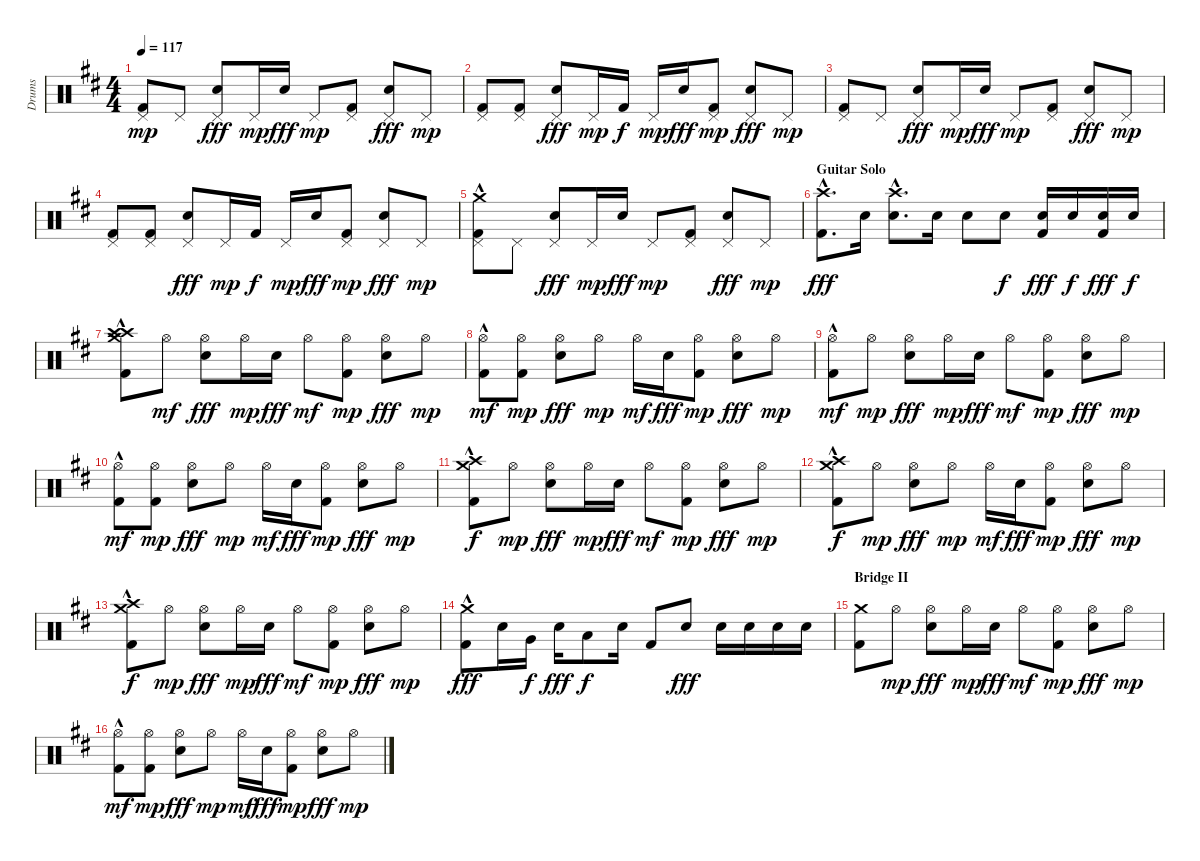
\track ("Drums" "Drums") {instrument percussion}
\staff {score}
\articulation defaults
\ts (4 4)
\tempo 117
\clef neutral
\ks d
("Pedal Hi-Hat (hit)" "Kick (hit) 2").8{dy mp} "Pedal Hi-Hat (hit)".8 ("Pedal Hi-Hat (hit)" "Electric Snare (hit)").8{dy fff} "Pedal Hi-Hat (hit)".16{dy mp} "Electric Snare (hit)".16{dy fff} "Pedal Hi-Hat (hit)".8{dy mp} ("Pedal Hi-Hat (hit)" "Kick (hit) 2").8 ("Pedal Hi-Hat (hit)" "Electric Snare (hit)").8{dy fff} "Pedal Hi-Hat (hit)".8{dy mp} |
("Pedal Hi-Hat (hit)" "Kick (hit) 2").8 ("Pedal Hi-Hat (hit)" "Kick (hit) 2").8 ("Pedal Hi-Hat (hit)" "Electric Snare (hit)").8{dy fff} "Pedal Hi-Hat (hit)".16{dy mp} "Kick (hit) 2".16{dy f} "Pedal Hi-Hat (hit)".16{dy mp} "Electric Snare (hit)".16{dy fff} ("Pedal Hi-Hat (hit)" "Kick (hit) 2").8{dy mp} ("Pedal Hi-Hat (hit)" "Electric Snare (hit)").8{dy fff} "Pedal Hi-Hat (hit)".8{dy mp} |
("Pedal Hi-Hat (hit)" "Kick (hit) 2").8 "Pedal Hi-Hat (hit)".8 ("Pedal Hi-Hat (hit)" "Electric Snare (hit)").8{dy fff} "Pedal Hi-Hat (hit)".16{dy mp} "Electric Snare (hit)".16{dy fff} "Pedal Hi-Hat (hit)".8{dy mp} ("Pedal Hi-Hat (hit)" "Kick (hit) 2").8 ("Pedal Hi-Hat (hit)" "Electric Snare (hit)").8{dy fff} "Pedal Hi-Hat (hit)".8{dy mp} |
("Pedal Hi-Hat (hit)" "Kick (hit) 2").8 ("Pedal Hi-Hat (hit)" "Kick (hit) 2").8 ("Pedal Hi-Hat (hit)" "Electric Snare (hit)").8{dy fff} "Pedal Hi-Hat (hit)".16{dy mp} "Kick (hit) 2".16{dy f} "Pedal Hi-Hat (hit)".16{dy mp} "Electric Snare (hit)".16{dy fff} ("Pedal Hi-Hat (hit)" "Kick (hit) 2").8{dy mp} ("Pedal Hi-Hat (hit)" "Electric Snare (hit)").8{dy fff} "Pedal Hi-Hat (hit)".8{dy mp} |
("Pedal Hi-Hat (hit)"{hac} "Crash medium (hit)" "Kick (hit) 2"{hac}).8 "Pedal Hi-Hat (hit)".8 ("Pedal Hi-Hat (hit)" "Electric Snare (hit)").8{dy fff} "Pedal Hi-Hat (hit)".16{dy mp} "Electric Snare (hit)".16{dy fff} "Pedal Hi-Hat (hit)".8{dy mp} ("Pedal Hi-Hat (hit)" "Kick (hit) 2").8 ("Pedal Hi-Hat (hit)" "Electric Snare (hit)").8{dy fff} "Pedal Hi-Hat (hit)".8{dy mp} |
\section ("" "Guitar Solo")
("Crash high (hit)"{hac} "Kick (hit) 2"{hac}).8{d dy fff} "Electric Snare (hit)".16 ("Crash high (hit)"{hac} "Electric Snare (hit)").8{d} "Electric Snare (hit)".16 "Electric Snare (hit)".8 "Electric Snare (hit)".8{dy f} ("Kick (hit) 2" "Electric Snare (hit)").16{dy fff} "Electric Snare (hit)".16{dy f} ("Kick (hit) 2" "Electric Snare (hit)").16{dy fff} "Electric Snare (hit)".16{dy f} |
("Crash medium (hit)" "Crash high (hit)" "Crash high (hit)" "Kick (hit) 2"{hac}).8 "Hi-Hat (open)".8{dy mf} ("Hi-Hat (open)" "Electric Snare (hit)").8{dy fff} "Hi-Hat (open)".16{dy mp} "Electric Snare (hit)".16{dy fff} "Hi-Hat (open)".8{dy mf} ("Hi-Hat (open)" "Kick (hit) 2").8{dy mp} ("Hi-Hat (open)" "Electric Snare (hit)").8{dy fff} "Hi-Hat (open)".8{dy mp} |
("Hi-Hat (open)" "Kick (hit) 2"{hac}).8{dy mf} ("Hi-Hat (open)" "Kick (hit) 2").8{dy mp} ("Hi-Hat (open)" "Electric Snare (hit)").8{dy fff} "Hi-Hat (open)".8{dy mp} "Hi-Hat (open)".16{dy mf} "Electric Snare (hit)".16{dy fff} ("Hi-Hat (open)" "Kick (hit) 2").8{dy mp} ("Hi-Hat (open)" "Electric Snare (hit)").8{dy fff} "Hi-Hat (open)".8{dy mp} |
("Hi-Hat (open)" "Kick (hit) 2"{hac}).8{dy mf} "Hi-Hat (open)".8{dy mp} ("Hi-Hat (open)" "Electric Snare (hit)").8{dy fff} "Hi-Hat (open)".16{dy mp} "Electric Snare (hit)".16{dy fff} "Hi-Hat (open)".8{dy mf} ("Hi-Hat (open)" "Kick (hit) 2").8{dy mp} ("Hi-Hat (open)" "Electric Snare (hit)").8{dy fff} "Hi-Hat (open)".8{dy mp} |
("Hi-Hat (open)" "Kick (hit) 2"{hac}).8{dy mf} ("Hi-Hat (open)" "Kick (hit) 2").8{dy mp} ("Hi-Hat (open)" "Electric Snare (hit)").8{dy fff} "Hi-Hat (open)".8{dy mp} "Hi-Hat (open)".16{dy mf} "Electric Snare (hit)".16{dy fff} ("Hi-Hat (open)" "Kick (hit) 2").8{dy mp} ("Hi-Hat (open)" "Electric Snare (hit)").8{dy fff} "Hi-Hat (open)".8{dy mp} |
("Crash medium (hit)" "Crash high (hit)" "Kick (hit) 2"{hac}).8{dy f} "Hi-Hat (open)".8{dy mp} ("Hi-Hat (open)" "Electric Snare (hit)").8{dy fff} "Hi-Hat (open)".16{dy mp} "Electric Snare (hit)".16{dy fff} "Hi-Hat (open)".8{dy mf} ("Hi-Hat (open)" "Kick (hit) 2").8{dy mp} ("Hi-Hat (open)" "Electric Snare (hit)").8{dy fff} "Hi-Hat (open)".8{dy mp} |
("Kick (hit) 2" "Crash high (hit)" "Crash medium (hit)"{hac}).8{dy f} "Hi-Hat (open)".8{dy mp} ("Hi-Hat (open)" "Electric Snare (hit)").8{dy fff} "Hi-Hat (open)".8{dy mp} "Hi-Hat (open)".16{dy mf} "Electric Snare (hit)".16{dy fff} ("Hi-Hat (open)" "Kick (hit) 2").8{dy mp} ("Hi-Hat (open)" "Electric Snare (hit)").8{dy fff} "Hi-Hat (open)".8{dy mp} |
("Crash medium (hit)" "Crash high (hit)" "Kick (hit) 2"{hac}).8{dy f} "Hi-Hat (open)".8{dy mp} ("Hi-Hat (open)" "Electric Snare (hit)").8{dy fff} "Hi-Hat (open)".16{dy mp} "Electric Snare (hit)".16{dy fff} "Hi-Hat (open)".8{dy mf} ("Hi-Hat (open)" "Kick (hit) 2").8{dy mp} ("Hi-Hat (open)" "Electric Snare (hit)").8{dy fff} "Hi-Hat (open)".8{dy mp} |
("Crash medium (hit)" "Kick (hit) 2"{hac}).8{dy fff} "Snare (hit) 2".16 "Very Low Tom (hit)".16{dy f} "Snare (hit) 2".16{dy fff} "Low Floor Tom (hit)".8{dy f} "Electric Snare (hit)".16 "Kick (hit) 2".8 "Snare (hit) 2".8{dy fff} "Snare (hit) 2".16 "Snare (hit) 2".16 "Snare (hit) 2".16 "Snare (hit) 2".16 |
\section ("" "Bridge II")
("Crash medium (hit)" "Kick (hit) 2").8 "Hi-Hat (open)".8{dy mp} ("Hi-Hat (open)" "Electric Snare (hit)").8{dy fff} "Hi-Hat (open)".16{dy mp} "Electric Snare (hit)".16{dy fff} "Hi-Hat (open)".8{dy mf} ("Hi-Hat (open)" "Kick (hit) 2").8{dy mp} ("Hi-Hat (open)" "Electric Snare (hit)").8{dy fff} "Hi-Hat (open)".8{dy mp} |
("Hi-Hat (open)" "Kick (hit) 2"{hac}).8{dy mf} ("Hi-Hat (open)" "Kick (hit) 2").8{dy mp} ("Hi-Hat (open)" "Electric Snare (hit)").8{dy fff} "Hi-Hat (open)".8{dy mp} "Hi-Hat (open)".16{dy mf} "Electric Snare (hit)".16{dy fff} ("Hi-Hat (open)" "Kick (hit) 2").8{dy mp} ("Hi-Hat (open)" "Electric Snare (hit)").8{dy fff} "Hi-Hat (open)".8{dy mp}
